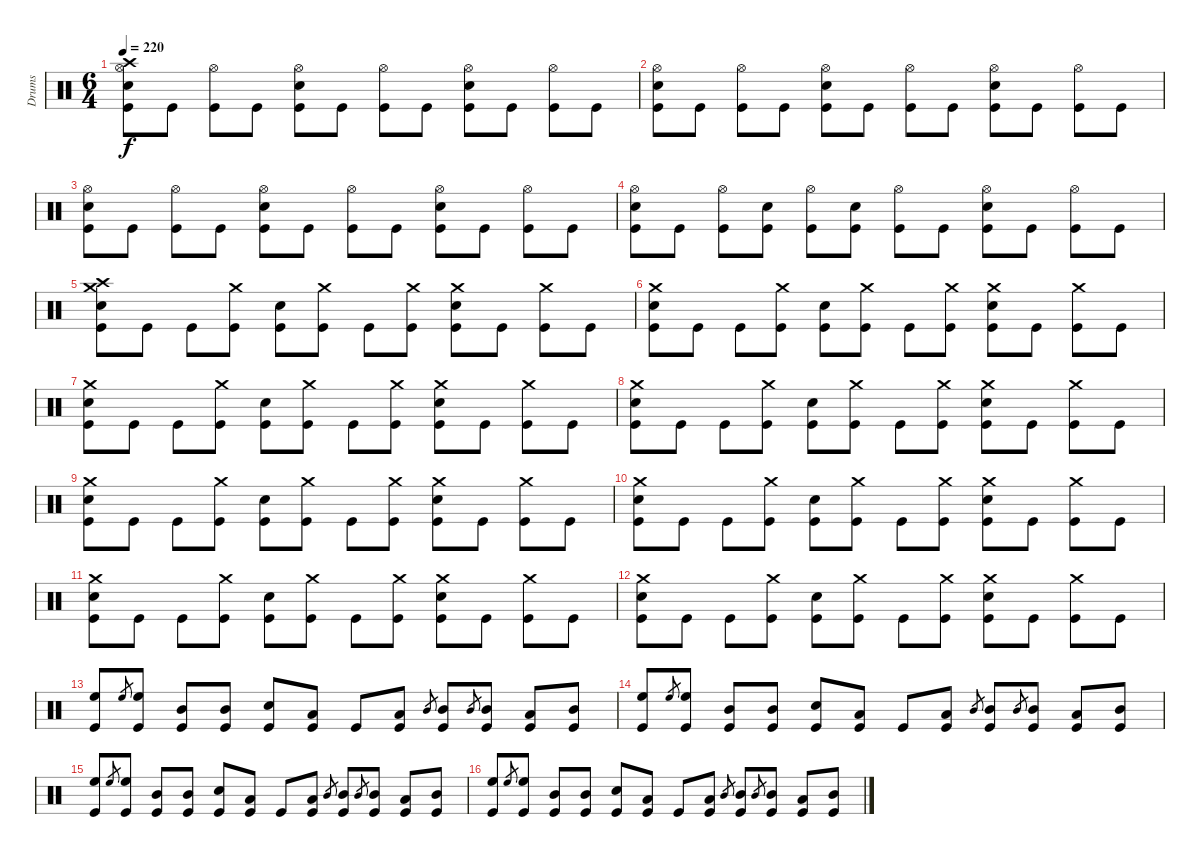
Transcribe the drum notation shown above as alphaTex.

\track ("Drums" "Drums") {instrument percussion}
\staff {score}
\articulation defaults
\ts (6 4)
\tempo 220
\clef neutral
\ks c
("Crash high (hit)" "Hi-Hat (open)" "Electric Snare (hit)" "Kick (hit)").8{dy f} "Kick (hit)".8 ("Hi-Hat (open)" "Kick (hit)").8 "Kick (hit)".8 ("Hi-Hat (open)" "Electric Snare (hit)" "Kick (hit)").8 "Kick (hit)".8 ("Hi-Hat (open)" "Kick (hit)").8 "Kick (hit)".8 ("Hi-Hat (open)" "Electric Snare (hit)" "Kick (hit)").8 "Kick (hit)".8 ("Hi-Hat (open)" "Kick (hit)").8 "Kick (hit)".8 |
("Hi-Hat (open)" "Electric Snare (hit)" "Kick (hit)").8 "Kick (hit)".8 ("Hi-Hat (open)" "Kick (hit)").8 "Kick (hit)".8 ("Hi-Hat (open)" "Electric Snare (hit)" "Kick (hit)").8 "Kick (hit)".8 ("Hi-Hat (open)" "Kick (hit)").8 "Kick (hit)".8 ("Hi-Hat (open)" "Electric Snare (hit)" "Kick (hit)").8 "Kick (hit)".8 ("Hi-Hat (open)" "Kick (hit)").8 "Kick (hit)".8 |
("Hi-Hat (open)" "Electric Snare (hit)" "Kick (hit)").8 "Kick (hit)".8 ("Hi-Hat (open)" "Kick (hit)").8 "Kick (hit)".8 ("Hi-Hat (open)" "Electric Snare (hit)" "Kick (hit)").8 "Kick (hit)".8 ("Hi-Hat (open)" "Kick (hit)").8 "Kick (hit)".8 ("Hi-Hat (open)" "Electric Snare (hit)" "Kick (hit)").8 "Kick (hit)".8 ("Hi-Hat (open)" "Kick (hit)").8 "Kick (hit)".8 |
("Hi-Hat (open)" "Electric Snare (hit)" "Kick (hit)").8 "Kick (hit)".8 ("Hi-Hat (open)" "Kick (hit)").8 ("Electric Snare (hit)" "Kick (hit)").8 ("Hi-Hat (open)" "Kick (hit)").8 ("Electric Snare (hit)" "Kick (hit)").8 ("Hi-Hat (open)" "Kick (hit)").8 "Kick (hit)".8 ("Hi-Hat (open)" "Electric Snare (hit)" "Kick (hit)").8 "Kick (hit)".8 ("Hi-Hat (open)" "Kick (hit)").8 "Kick (hit)".8 |
("Crash high (hit)" "Crash medium (hit)" "Electric Snare (hit)" "Kick (hit)").8 "Kick (hit)".8 "Kick (hit)".8 ("Crash medium (hit)" "Kick (hit)").8 ("Electric Snare (hit)" "Kick (hit)").8 ("Crash medium (hit)" "Kick (hit)").8 "Kick (hit)".8 ("Crash medium (hit)" "Kick (hit)").8 ("Crash medium (hit)" "Electric Snare (hit)" "Kick (hit)").8 "Kick (hit)".8 ("Crash medium (hit)" "Kick (hit)").8 "Kick (hit)".8 |
("Crash medium (hit)" "Electric Snare (hit)" "Kick (hit)").8 "Kick (hit)".8 "Kick (hit)".8 ("Crash medium (hit)" "Kick (hit)").8 ("Electric Snare (hit)" "Kick (hit)").8 ("Crash medium (hit)" "Kick (hit)").8 "Kick (hit)".8 ("Crash medium (hit)" "Kick (hit)").8 ("Crash medium (hit)" "Electric Snare (hit)" "Kick (hit)").8 "Kick (hit)".8 ("Crash medium (hit)" "Kick (hit)").8 "Kick (hit)".8 |
("Crash medium (hit)" "Electric Snare (hit)" "Kick (hit)").8 "Kick (hit)".8 "Kick (hit)".8 ("Crash medium (hit)" "Kick (hit)").8 ("Electric Snare (hit)" "Kick (hit)").8 ("Crash medium (hit)" "Kick (hit)").8 "Kick (hit)".8 ("Crash medium (hit)" "Kick (hit)").8 ("Crash medium (hit)" "Electric Snare (hit)" "Kick (hit)").8 "Kick (hit)".8 ("Crash medium (hit)" "Kick (hit)").8 "Kick (hit)".8 |
("Crash medium (hit)" "Electric Snare (hit)" "Kick (hit)").8 "Kick (hit)".8 "Kick (hit)".8 ("Crash medium (hit)" "Kick (hit)").8 ("Electric Snare (hit)" "Kick (hit)").8 ("Crash medium (hit)" "Kick (hit)").8 "Kick (hit)".8 ("Crash medium (hit)" "Kick (hit)").8 ("Crash medium (hit)" "Electric Snare (hit)" "Kick (hit)").8 "Kick (hit)".8 ("Crash medium (hit)" "Kick (hit)").8 "Kick (hit)".8 |
("Crash medium (hit)" "Electric Snare (hit)" "Kick (hit)").8 "Kick (hit)".8 "Kick (hit)".8 ("Crash medium (hit)" "Kick (hit)").8 ("Electric Snare (hit)" "Kick (hit)").8 ("Crash medium (hit)" "Kick (hit)").8 "Kick (hit)".8 ("Crash medium (hit)" "Kick (hit)").8 ("Crash medium (hit)" "Electric Snare (hit)" "Kick (hit)").8 "Kick (hit)".8 ("Crash medium (hit)" "Kick (hit)").8 "Kick (hit)".8 |
("Crash medium (hit)" "Electric Snare (hit)" "Kick (hit)").8 "Kick (hit)".8 "Kick (hit)".8 ("Crash medium (hit)" "Kick (hit)").8 ("Electric Snare (hit)" "Kick (hit)").8 ("Crash medium (hit)" "Kick (hit)").8 "Kick (hit)".8 ("Crash medium (hit)" "Kick (hit)").8 ("Crash medium (hit)" "Electric Snare (hit)" "Kick (hit)").8 "Kick (hit)".8 ("Crash medium (hit)" "Kick (hit)").8 "Kick (hit)".8 |
("Crash medium (hit)" "Electric Snare (hit)" "Kick (hit)").8 "Kick (hit)".8 "Kick (hit)".8 ("Crash medium (hit)" "Kick (hit)").8 ("Electric Snare (hit)" "Kick (hit)").8 ("Crash medium (hit)" "Kick (hit)").8 "Kick (hit)".8 ("Crash medium (hit)" "Kick (hit)").8 ("Crash medium (hit)" "Electric Snare (hit)" "Kick (hit)").8 "Kick (hit)".8 ("Crash medium (hit)" "Kick (hit)").8 "Kick (hit)".8 |
("Crash medium (hit)" "Electric Snare (hit)" "Kick (hit)").8 "Kick (hit)".8 "Kick (hit)".8 ("Crash medium (hit)" "Kick (hit)").8 ("Electric Snare (hit)" "Kick (hit)").8 ("Crash medium (hit)" "Kick (hit)").8 "Kick (hit)".8 ("Crash medium (hit)" "Kick (hit)").8 ("Crash medium (hit)" "Electric Snare (hit)" "Kick (hit)").8 "Kick (hit)".8 ("Crash medium (hit)" "Kick (hit)").8 "Kick (hit)".8 |
("High Floor Tom (hit)" "Kick (hit)").8 "High Floor Tom (hit)".8{gr} ("High Floor Tom (hit)" "Kick (hit)").8 ("Mid Tom (hit)" "Kick (hit)").8 ("Mid Tom (hit)" "Kick (hit)").8 ("Electric Snare (hit)" "Kick (hit)").8 ("Low Tom (hit)" "Kick (hit)").8 "Kick (hit)".8 ("Low Tom (hit)" "Kick (hit)").8 "Mid Tom (hit)".8{gr} ("Mid Tom (hit)" "Kick (hit)").8 "Mid Tom (hit)".8{gr} ("Mid Tom (hit)" "Kick (hit)").8 ("Low Tom (hit)" "Kick (hit)").8 ("Mid Tom (hit)" "Kick (hit)").8 |
("High Floor Tom (hit)" "Kick (hit)").8 "High Floor Tom (hit)".8{gr} ("High Floor Tom (hit)" "Kick (hit)").8 ("Mid Tom (hit)" "Kick (hit)").8 ("Mid Tom (hit)" "Kick (hit)").8 ("Electric Snare (hit)" "Kick (hit)").8 ("Low Tom (hit)" "Kick (hit)").8 "Kick (hit)".8 ("Low Tom (hit)" "Kick (hit)").8 "Mid Tom (hit)".8{gr} ("Mid Tom (hit)" "Kick (hit)").8 "Mid Tom (hit)".8{gr} ("Mid Tom (hit)" "Kick (hit)").8 ("Low Tom (hit)" "Kick (hit)").8 ("Mid Tom (hit)" "Kick (hit)").8 |
("High Floor Tom (hit)" "Kick (hit)").8 "High Floor Tom (hit)".8{gr} ("High Floor Tom (hit)" "Kick (hit)").8 ("Mid Tom (hit)" "Kick (hit)").8 ("Mid Tom (hit)" "Kick (hit)").8 ("Electric Snare (hit)" "Kick (hit)").8 ("Low Tom (hit)" "Kick (hit)").8 "Kick (hit)".8 ("Low Tom (hit)" "Kick (hit)").8 "Mid Tom (hit)".8{gr} ("Mid Tom (hit)" "Kick (hit)").8 "Mid Tom (hit)".8{gr} ("Mid Tom (hit)" "Kick (hit)").8 ("Low Tom (hit)" "Kick (hit)").8 ("Mid Tom (hit)" "Kick (hit)").8 |
("High Floor Tom (hit)" "Kick (hit)").8 "High Floor Tom (hit)".8{gr} ("High Floor Tom (hit)" "Kick (hit)").8 ("Mid Tom (hit)" "Kick (hit)").8 ("Mid Tom (hit)" "Kick (hit)").8 ("Electric Snare (hit)" "Kick (hit)").8 ("Low Tom (hit)" "Kick (hit)").8 "Kick (hit)".8 ("Low Tom (hit)" "Kick (hit)").8 "Mid Tom (hit)".8{gr} ("Mid Tom (hit)" "Kick (hit)").8 "Mid Tom (hit)".8{gr} ("Mid Tom (hit)" "Kick (hit)").8 ("Low Tom (hit)" "Kick (hit)").8 ("Mid Tom (hit)" "Kick (hit)").8
